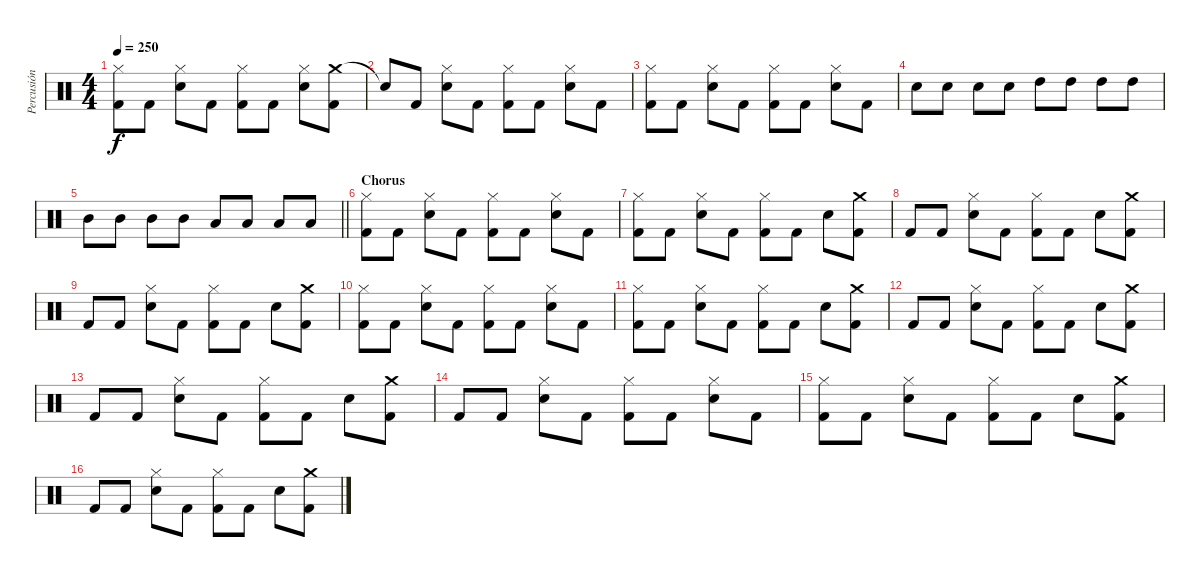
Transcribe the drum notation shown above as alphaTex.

\track ("Percusión" "Percusión") {instrument percussion}
\staff {score}
\articulation defaults
\ts (4 4)
\tempo 250
\clef neutral
\ks c
("Hi-Hat (closed)" "Kick (hit) 2").8{dy f} "Kick (hit) 2".8 ("Electric Snare (hit)" "Hi-Hat (closed)").8 "Kick (hit) 2".8 ("Hi-Hat (closed)" "Kick (hit) 2").8 "Kick (hit) 2".8 ("Electric Snare (hit)" "Hi-Hat (closed)").8 ("Crash medium (hit)" "Kick (hit) 2").8 |
"Snare (hit)"{t}.8 "Kick (hit) 2".8 ("Electric Snare (hit)" "Hi-Hat (closed)").8 "Kick (hit) 2".8 ("Hi-Hat (closed)" "Kick (hit) 2").8 "Kick (hit) 2".8 ("Electric Snare (hit)" "Hi-Hat (closed)").8 "Kick (hit) 2".8 |
("Hi-Hat (closed)" "Kick (hit) 2").8 "Kick (hit) 2".8 ("Electric Snare (hit)" "Hi-Hat (closed)").8 "Kick (hit) 2".8 ("Hi-Hat (closed)" "Kick (hit) 2").8 "Kick (hit) 2".8 ("Electric Snare (hit)" "Hi-Hat (closed)").8 "Kick (hit) 2".8 |
"Electric Snare (hit)".8 "Electric Snare (hit)".8 "Electric Snare (hit)".8 "Electric Snare (hit)".8 "High Tom (hit)".8 "High Tom (hit)".8 "High Tom (hit)".8 "High Tom (hit)".8 |
\barLineRight lightlight "Mid Tom (hit)".8 "Mid Tom (hit)".8 "Mid Tom (hit)".8 "Mid Tom (hit)".8 "Low Tom (hit)".8 "Low Tom (hit)".8 "Low Tom (hit)".8 "Low Tom (hit)".8
|
\section ("" "Chorus")
("Hi-Hat (closed)" "Kick (hit) 2").8 "Kick (hit) 2".8 ("Electric Snare (hit)" "Hi-Hat (closed)").8 "Kick (hit) 2".8 ("Hi-Hat (closed)" "Kick (hit) 2").8 "Kick (hit) 2".8 ("Electric Snare (hit)" "Hi-Hat (closed)").8 "Kick (hit) 2".8 |
("Hi-Hat (closed)" "Kick (hit) 2").8 "Kick (hit) 2".8 ("Electric Snare (hit)" "Hi-Hat (closed)").8 "Kick (hit) 2".8 ("Hi-Hat (closed)" "Kick (hit) 2").8 "Kick (hit) 2".8 "Electric Snare (hit)".8 ("Crash medium (hit)" "Kick (hit) 2").8 |
"Kick (hit) 2".8 "Kick (hit) 2".8 ("Electric Snare (hit)" "Hi-Hat (closed)").8 "Kick (hit) 2".8 ("Hi-Hat (closed)" "Kick (hit) 2").8 "Kick (hit) 2".8 "Electric Snare (hit)".8 ("Crash medium (hit)" "Kick (hit) 2").8 |
"Kick (hit) 2".8 "Kick (hit) 2".8 ("Electric Snare (hit)" "Hi-Hat (closed)").8 "Kick (hit) 2".8 ("Hi-Hat (closed)" "Kick (hit) 2").8 "Kick (hit) 2".8 "Electric Snare (hit)".8 ("Crash medium (hit)" "Kick (hit) 2").8 |
("Hi-Hat (closed)" "Kick (hit) 2").8 "Kick (hit) 2".8 ("Electric Snare (hit)" "Hi-Hat (closed)").8 "Kick (hit) 2".8 ("Hi-Hat (closed)" "Kick (hit) 2").8 "Kick (hit) 2".8 ("Electric Snare (hit)" "Hi-Hat (closed)").8 "Kick (hit) 2".8 |
("Hi-Hat (closed)" "Kick (hit) 2").8 "Kick (hit) 2".8 ("Electric Snare (hit)" "Hi-Hat (closed)").8 "Kick (hit) 2".8 ("Hi-Hat (closed)" "Kick (hit) 2").8 "Kick (hit) 2".8 "Electric Snare (hit)".8 ("Crash medium (hit)" "Kick (hit) 2").8 |
"Kick (hit) 2".8 "Kick (hit) 2".8 ("Electric Snare (hit)" "Hi-Hat (closed)").8 "Kick (hit) 2".8 ("Hi-Hat (closed)" "Kick (hit) 2").8 "Kick (hit) 2".8 "Electric Snare (hit)".8 ("Crash medium (hit)" "Kick (hit) 2").8 |
"Kick (hit) 2".8 "Kick (hit) 2".8 ("Electric Snare (hit)" "Hi-Hat (closed)").8 "Kick (hit) 2".8 ("Hi-Hat (closed)" "Kick (hit) 2").8 "Kick (hit) 2".8 "Electric Snare (hit)".8 ("Crash medium (hit)" "Kick (hit) 2").8 |
"Kick (hit) 2".8 "Kick (hit) 2".8 ("Electric Snare (hit)" "Hi-Hat (closed)").8 "Kick (hit) 2".8 ("Hi-Hat (closed)" "Kick (hit) 2").8 "Kick (hit) 2".8 ("Electric Snare (hit)" "Hi-Hat (closed)").8 "Kick (hit) 2".8 |
("Hi-Hat (closed)" "Kick (hit) 2").8 "Kick (hit) 2".8 ("Electric Snare (hit)" "Hi-Hat (closed)").8 "Kick (hit) 2".8 ("Hi-Hat (closed)" "Kick (hit) 2").8 "Kick (hit) 2".8 "Electric Snare (hit)".8 ("Crash medium (hit)" "Kick (hit) 2").8 |
"Kick (hit) 2".8 "Kick (hit) 2".8 ("Electric Snare (hit)" "Hi-Hat (closed)").8 "Kick (hit) 2".8 ("Hi-Hat (closed)" "Kick (hit) 2").8 "Kick (hit) 2".8 "Electric Snare (hit)".8 ("Crash medium (hit)" "Kick (hit) 2").8
